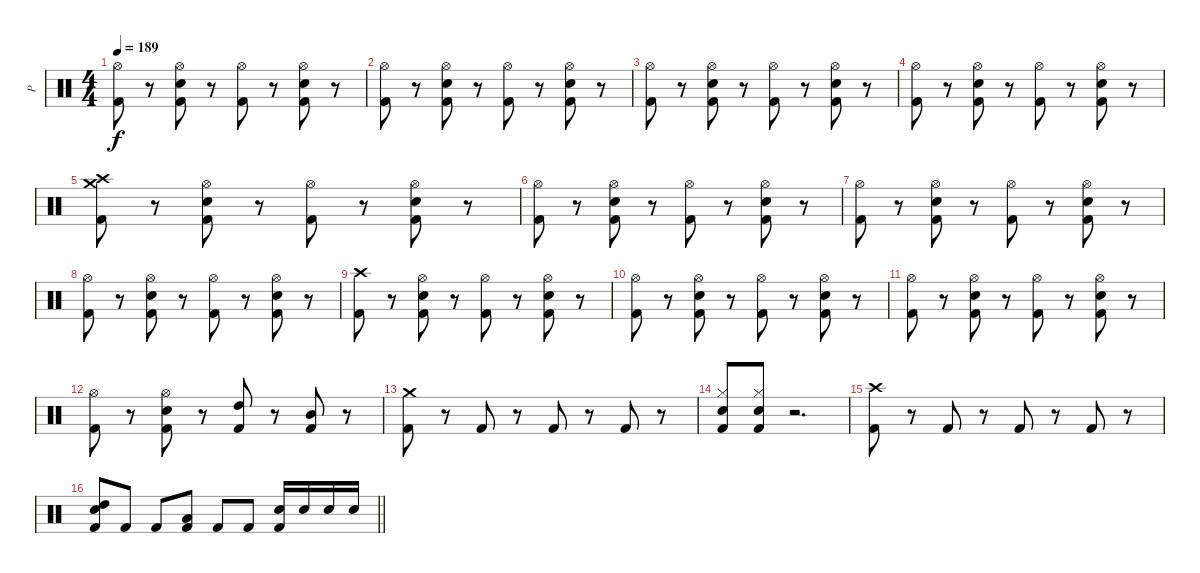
\track ("P" "P") {instrument percussion}
\staff {score}
\articulation defaults
\ts (4 4)
\tempo 189
\clef neutral
\ks c
("Hi-Hat (open)" "Kick (hit) 2").8{dy f} r.8 ("Hi-Hat (open)" "Electric Snare (hit)" "Kick (hit) 2").8 r.8 ("Hi-Hat (open)" "Kick (hit) 2").8 r.8 ("Hi-Hat (open)" "Electric Snare (hit)" "Kick (hit) 2").8 r.8 |
("Hi-Hat (open)" "Kick (hit) 2").8 r.8 ("Hi-Hat (open)" "Electric Snare (hit)" "Kick (hit) 2").8 r.8 ("Hi-Hat (open)" "Kick (hit) 2").8 r.8 ("Hi-Hat (open)" "Electric Snare (hit)" "Kick (hit) 2").8 r.8 |
("Hi-Hat (open)" "Kick (hit) 2").8 r.8 ("Hi-Hat (open)" "Electric Snare (hit)" "Kick (hit) 2").8 r.8 ("Hi-Hat (open)" "Kick (hit) 2").8 r.8 ("Hi-Hat (open)" "Electric Snare (hit)" "Kick (hit) 2").8 r.8 |
("Hi-Hat (open)" "Kick (hit) 2").8 r.8 ("Hi-Hat (open)" "Electric Snare (hit)" "Kick (hit) 2").8 r.8 ("Hi-Hat (open)" "Kick (hit) 2").8 r.8 ("Hi-Hat (open)" "Electric Snare (hit)" "Kick (hit) 2").8 r.8 |
("Crash medium (hit)" "Crash high (hit)" "Kick (hit) 2").8 r.8 ("Hi-Hat (open)" "Electric Snare (hit)" "Kick (hit) 2").8 r.8 ("Hi-Hat (open)" "Kick (hit) 2").8 r.8 ("Hi-Hat (open)" "Electric Snare (hit)" "Kick (hit) 2").8 r.8 |
("Hi-Hat (open)" "Kick (hit) 2").8 r.8 ("Hi-Hat (open)" "Electric Snare (hit)" "Kick (hit) 2").8 r.8 ("Hi-Hat (open)" "Kick (hit) 2").8 r.8 ("Hi-Hat (open)" "Electric Snare (hit)" "Kick (hit) 2").8 r.8 |
("Hi-Hat (open)" "Kick (hit) 2").8 r.8 ("Hi-Hat (open)" "Electric Snare (hit)" "Kick (hit) 2").8 r.8 ("Hi-Hat (open)" "Kick (hit) 2").8 r.8 ("Hi-Hat (open)" "Electric Snare (hit)" "Kick (hit) 2").8 r.8 |
("Hi-Hat (open)" "Kick (hit) 2").8 r.8 ("Hi-Hat (open)" "Electric Snare (hit)" "Kick (hit) 2").8 r.8 ("Hi-Hat (open)" "Kick (hit) 2").8 r.8 ("Hi-Hat (open)" "Electric Snare (hit)" "Kick (hit) 2").8 r.8 |
("Crash high (hit)" "Kick (hit) 2").8 r.8 ("Hi-Hat (open)" "Electric Snare (hit)" "Kick (hit) 2").8 r.8 ("Hi-Hat (open)" "Kick (hit) 2").8 r.8 ("Hi-Hat (open)" "Electric Snare (hit)" "Kick (hit) 2").8 r.8 |
("Hi-Hat (open)" "Kick (hit) 2").8 r.8 ("Hi-Hat (open)" "Electric Snare (hit)" "Kick (hit) 2").8 r.8 ("Hi-Hat (open)" "Kick (hit) 2").8 r.8 ("Hi-Hat (open)" "Electric Snare (hit)" "Kick (hit) 2").8 r.8 |
("Hi-Hat (open)" "Kick (hit) 2").8 r.8 ("Hi-Hat (open)" "Electric Snare (hit)" "Kick (hit) 2").8 r.8 ("Hi-Hat (open)" "Kick (hit) 2").8 r.8 ("Hi-Hat (open)" "Electric Snare (hit)" "Kick (hit) 2").8 r.8 |
("Hi-Hat (open)" "Kick (hit) 2").8 r.8 ("Hi-Hat (open)" "Electric Snare (hit)" "Kick (hit) 2").8 r.8 ("High Tom (hit)" "Kick (hit) 2").8 r.8 ("Mid Tom (hit)" "Kick (hit) 2").8 r.8 |
("Crash medium (hit)" "Kick (hit) 2").8 r.8 "Kick (hit) 2".8 r.8 "Kick (hit) 2".8 r.8 "Kick (hit) 2".8 r.8 |
("Hi-Hat (closed)" "Snare (hit) 2" "Kick (hit) 2").8 ("Hi-Hat (closed)" "Snare (hit) 2" "Kick (hit) 2").8 r.2{d} |
("Crash high (hit)" "Kick (hit) 2").8 r.8 "Kick (hit) 2".8 r.8 "Kick (hit) 2".8 r.8 "Kick (hit) 2".8 r.8 |
\barLineRight lightlight
("High Tom (hit)" "Electric Snare (hit)" "Kick (hit) 2").8 "Kick (hit) 2".8 "Kick (hit) 2".8 ("Low Tom (hit)" "Kick (hit) 2").8 "Kick (hit) 2".8 "Kick (hit) 2".8 ("Electric Snare (hit)" "Kick (hit) 2").16 "Electric Snare (hit)".16 "Electric Snare (hit)".16 "Electric Snare (hit)".16
